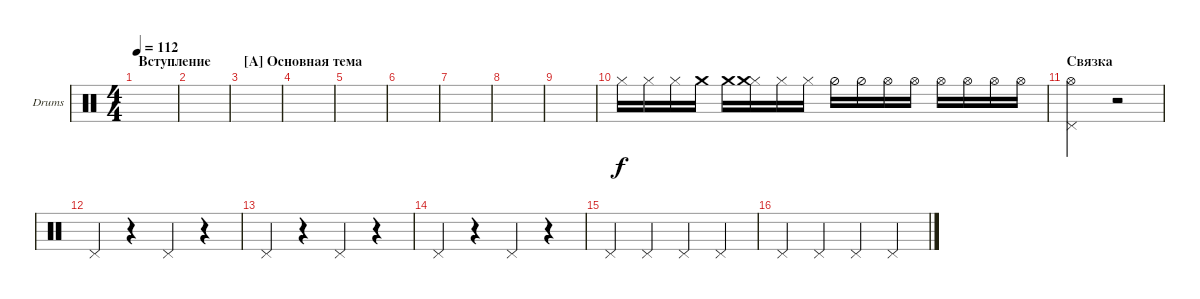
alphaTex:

\defaultSystemsLayout 4
\bracketExtendMode groupsimilarinstruments
\firstSystemTrackNameOrientation horizontal
\otherSystemsTrackNameOrientation horizontal
\track ("Drumkit" "Drums") {instrument percussion}
\staff {score}
\articulation defaults
\ts (4 4)
\section ("" "Вступление")
\tempo 112
\clef neutral
\scale
0.472222
\ks c
|
\scale
0.263889 |
\section ("A" "Основная тема")
\scale
0.263889 |
\scale
0.333333 |
\scale
0.333333 |
\scale
0.333333 |
\scale
0.333333 |
\scale
0.333333 |
\scale
0.333333 |
\scale
0.333333 "Hi-Hat (closed)".16 "Hi-Hat (closed)".16 "Hi-Hat (closed)".16 "Crash medium (hit)".16 "Crash medium (hit)".16 ("Hi-Hat (closed)" "Crash medium (hit)").16 "Hi-Hat (closed)".16 "Hi-Hat (closed)".16 "Hi-Hat (half)".16 "Hi-Hat (half)".16 "Hi-Hat (open)".16 "Hi-Hat (open)".16 "Hi-Hat (open)".16 "Hi-Hat (open)".16 "Hi-Hat (open)".16 "Hi-Hat (open)".16 |
\section ("" "Связка")
\scale
0.333333 ("Pedal Hi-Hat (hit)" "Hi-Hat (open)").2 r.2 |
\scale
0.333333 "Pedal Hi-Hat (hit)".4 r.4 "Pedal Hi-Hat (hit)".4 r.4 |
\scale
0.333333 "Pedal Hi-Hat (hit)".4 r.4 "Pedal Hi-Hat (hit)".4 r.4 |
\scale
0.333333 "Pedal Hi-Hat (hit)".4 r.4 "Pedal Hi-Hat (hit)".4 r.4 |
\scale
0.333333 "Pedal Hi-Hat (hit)".4 "Pedal Hi-Hat (hit)".4 "Pedal Hi-Hat (hit)".4 "Pedal Hi-Hat (hit)".4 |
\scale
0.333333 "Pedal Hi-Hat (hit)".4 "Pedal Hi-Hat (hit)".4 "Pedal Hi-Hat (hit)".4 "Pedal Hi-Hat (hit)".4
